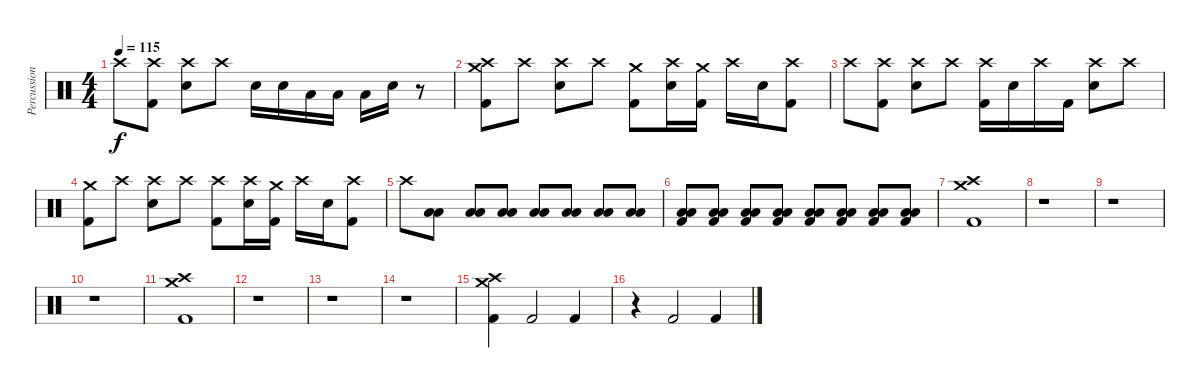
\track ("Percussion" "Percussion") {instrument percussion}
\staff {score}
\articulation defaults
\ts (4 4)
\tempo 115
\clef neutral
\ks c "Crash high (hit)".8{dy f}
("Crash high (hit)" "Kick (hit) 2").8 ("Crash high (hit)" "Electric Snare (hit)").8 "Crash high (hit)".8 "Electric Snare (hit)".16 "Electric Snare (hit)".16 "Low Tom (hit)".16 "Low Floor Tom (hit)".16 "Low Floor Tom (hit)".16 "Electric Snare (hit)".16 r.8 |
("Crash high (hit)" "Crash medium (hit)" "Kick (hit) 2").8 "Crash high (hit)".8 ("Crash high (hit)" "Electric Snare (hit)").8 "Crash high (hit)".8 ("Crash medium (hit)" "Kick (hit) 2").8 ("Crash high (hit)" "Electric Snare (hit)").16 ("Crash medium (hit)" "Kick (hit) 2").16 "Crash high (hit)".16 "Electric Snare (hit)".16 ("Crash high (hit)" "Kick (hit) 2").8 |
"Crash high (hit)".8 ("Crash high (hit)" "Kick (hit) 2").8 ("Crash high (hit)" "Electric Snare (hit)").8 "Crash high (hit)".8 ("Crash high (hit)" "Kick (hit) 2").16 "Electric Snare (hit)".16 "Crash high (hit)".16 "Kick (hit) 2".16 ("Crash high (hit)" "Electric Snare (hit)").8 "Crash high (hit)".8 |
("Crash medium (hit)" "Kick (hit) 2").8 "Crash high (hit)".8 ("Crash high (hit)" "Electric Snare (hit)").8 "Crash high (hit)".8 ("Crash high (hit)" "Kick (hit) 2").8 ("Crash high (hit)" "Electric Snare (hit)").16 ("Crash medium (hit)" "Kick (hit) 2").16 "Crash high (hit)".16 "Electric Snare (hit)".16 ("Crash high (hit)" "Kick (hit) 2").8 |
"Crash high (hit)".8 ("Low Tom (hit)" "Low Floor Tom (hit)").8 ("Low Tom (hit)" "Low Floor Tom (hit)").8 ("Low Tom (hit)" "Low Floor Tom (hit)").8 ("Low Tom (hit)" "Low Floor Tom (hit)").8 ("Low Tom (hit)" "Low Floor Tom (hit)").8 ("Low Tom (hit)" "Low Floor Tom (hit)").8 ("Low Tom (hit)" "Low Floor Tom (hit)").8 |
("Low Tom (hit)" "Low Floor Tom (hit)" "Kick (hit) 2").8 ("Low Tom (hit)" "Low Floor Tom (hit)" "Kick (hit) 2").8 ("Low Tom (hit)" "Low Floor Tom (hit)" "Kick (hit) 2").8 ("Low Tom (hit)" "Low Floor Tom (hit)" "Kick (hit) 2").8 ("Low Tom (hit)" "Low Floor Tom (hit)" "Kick (hit) 2").8 ("Low Tom (hit)" "Low Floor Tom (hit)" "Kick (hit) 2").8 ("Low Tom (hit)" "Low Floor Tom (hit)" "Kick (hit) 2").8 ("Low Tom (hit)" "Low Floor Tom (hit)" "Kick (hit) 2").8 |
("Crash medium (hit)" "Crash high (hit)" "Kick (hit) 2").1 |
r.1 |
r.1 |
r.1 |
("Crash medium (hit)" "Crash high (hit)" "Kick (hit) 2").1 |
r.1 |
r.1 |
r.1 |
("Crash medium (hit)" "Crash high (hit)" "Kick (hit) 2").4 "Kick (hit) 2".2 "Kick (hit) 2".4 |
r.4 "Kick (hit) 2".2 "Kick (hit) 2".4
